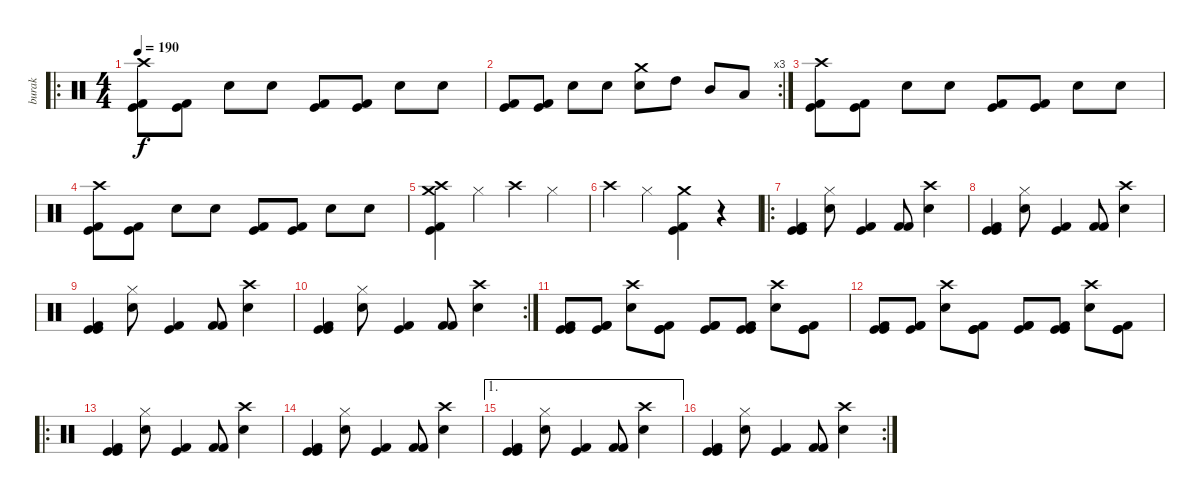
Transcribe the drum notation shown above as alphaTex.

\track ("burak" "burak") {instrument percussion}
\staff {score}
\articulation defaults
\ro
\ts (4 4)
\tempo 190
\clef neutral
\ks c
("Crash high (hit)" "Kick (hit)" "Kick (hit) 2").8{dy f} ("Kick (hit)" "Kick (hit) 2").8 "Electric Snare (hit)".8 "Electric Snare (hit)".8 ("Kick (hit)" "Kick (hit) 2").8 ("Kick (hit)" "Kick (hit) 2").8 "Electric Snare (hit)".8 "Electric Snare (hit)".8 |
\rc 3
("Kick (hit) 2" "Kick (hit)").8 ("Kick (hit)" "Kick (hit) 2").8 "Electric Snare (hit)".8 "Electric Snare (hit)".8 ("Crash medium (hit)" "Snare (hit) 2").8 "High Tom (hit)".8 "Mid Tom (hit)".8 "Low Tom (hit)".8 |
("Crash high (hit)" "Kick (hit)" "Kick (hit) 2").8 ("Kick (hit)" "Kick (hit) 2").8 "Electric Snare (hit)".8 "Electric Snare (hit)".8 ("Kick (hit)" "Kick (hit) 2").8 ("Kick (hit)" "Kick (hit) 2").8 "Electric Snare (hit)".8 "Electric Snare (hit)".8 |
("Crash high (hit)" "Kick (hit)" "Kick (hit) 2").8 ("Kick (hit)" "Kick (hit) 2").8 "Electric Snare (hit)".8 "Electric Snare (hit)".8 ("Kick (hit)" "Kick (hit) 2").8 ("Kick (hit)" "Kick (hit) 2").8 "Electric Snare (hit)".8 "Electric Snare (hit)".8 |
("Crash medium (hit)" "Crash high (hit)" "Kick (hit) 2" "Kick (hit)").4 "Hi-Hat (closed)".4 "Crash high (hit)".4 "Hi-Hat (closed)".4 |
"Crash high (hit)".4 "Hi-Hat (closed)".4 ("Crash medium (hit)" "Kick (hit)" "Kick (hit) 2").4 r.4 |
\ro
("Kick (hit)" "Kick (hit)" "Kick (hit) 2").4 ("Hi-Hat (closed)" "Electric Snare (hit)").8 ("Kick (hit)" "Kick (hit) 2").4 ("Kick (hit) 2" "Kick (hit) 2").8 ("Crash high (hit)" "Electric Snare (hit)").4 |
("Kick (hit)" "Kick (hit)" "Kick (hit) 2").4 ("Hi-Hat (closed)" "Electric Snare (hit)").8 ("Kick (hit)" "Kick (hit) 2").4 ("Kick (hit) 2" "Kick (hit) 2").8 ("Crash high (hit)" "Electric Snare (hit)").4 |
("Kick (hit)" "Kick (hit)" "Kick (hit) 2").4 ("Hi-Hat (closed)" "Electric Snare (hit)").8 ("Kick (hit)" "Kick (hit) 2").4 ("Kick (hit) 2" "Kick (hit) 2").8 ("Crash high (hit)" "Electric Snare (hit)").4 |
\rc 2
("Kick (hit)" "Kick (hit)" "Kick (hit) 2").4 ("Hi-Hat (closed)" "Electric Snare (hit)").8 ("Kick (hit)" "Kick (hit) 2").4 ("Kick (hit) 2" "Kick (hit) 2").8 ("Crash high (hit)" "Electric Snare (hit)").4 |
("Kick (hit)" "Kick (hit)" "Kick (hit) 2").8 ("Kick (hit)" "Kick (hit) 2" "Kick (hit) 2").8 ("Crash high (hit)" "Electric Snare (hit)").8 ("Kick (hit)" "Kick (hit)" "Kick (hit) 2").8 ("Kick (hit) 2" "Kick (hit)" "Kick (hit) 2").8 ("Kick (hit)" "Kick (hit)" "Kick (hit) 2").8 ("Crash high (hit)" "Electric Snare (hit)").8 ("Kick (hit)" "Kick (hit)" "Kick (hit) 2").8 |
("Kick (hit)" "Kick (hit)" "Kick (hit) 2").8 ("Kick (hit)" "Kick (hit) 2" "Kick (hit) 2").8 ("Crash high (hit)" "Electric Snare (hit)").8 ("Kick (hit)" "Kick (hit)" "Kick (hit) 2").8 ("Kick (hit) 2" "Kick (hit)" "Kick (hit) 2").8 ("Kick (hit)" "Kick (hit)" "Kick (hit) 2").8 ("Crash high (hit)" "Electric Snare (hit)").8 ("Kick (hit)" "Kick (hit)" "Kick (hit) 2").8 |
\ro
("Kick (hit)" "Kick (hit)" "Kick (hit) 2").4 ("Hi-Hat (closed)" "Electric Snare (hit)").8 ("Kick (hit)" "Kick (hit) 2").4 ("Kick (hit) 2" "Kick (hit) 2").8 ("Crash high (hit)" "Electric Snare (hit)").4 |
("Kick (hit)" "Kick (hit)" "Kick (hit) 2").4 ("Hi-Hat (closed)" "Electric Snare (hit)").8 ("Kick (hit)" "Kick (hit) 2").4 ("Kick (hit) 2" "Kick (hit) 2").8 ("Crash high (hit)" "Electric Snare (hit)").4 |
\ae 1
("Kick (hit)" "Kick (hit)" "Kick (hit) 2").4 ("Hi-Hat (closed)" "Electric Snare (hit)").8 ("Kick (hit)" "Kick (hit) 2").4 ("Kick (hit) 2" "Kick (hit) 2").8 ("Crash high (hit)" "Electric Snare (hit)").4 |
\rc 2
("Kick (hit)" "Kick (hit)" "Kick (hit) 2").4 ("Hi-Hat (closed)" "Electric Snare (hit)").8 ("Kick (hit)" "Kick (hit) 2").4 ("Kick (hit) 2" "Kick (hit) 2").8 ("Crash high (hit)" "Electric Snare (hit)").4
